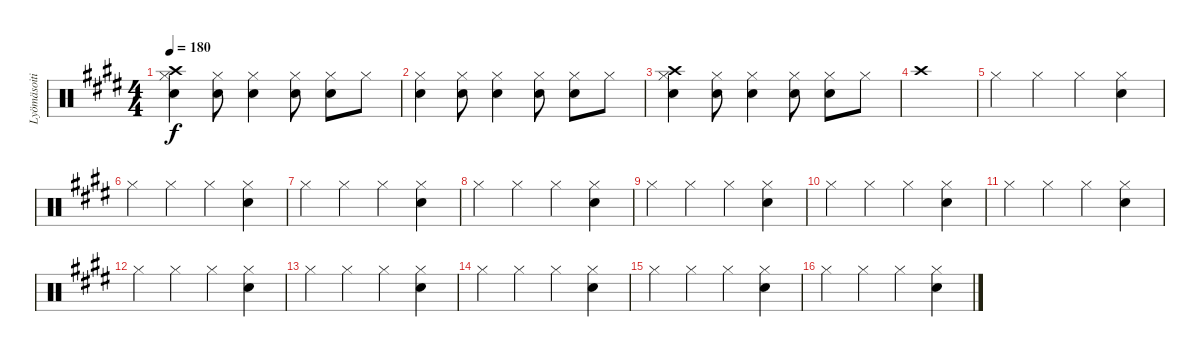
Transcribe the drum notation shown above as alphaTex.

\track ("Lyömäsoitin" "Lyömäsoiti") {instrument percussion}
\staff {score}
\articulation defaults
\ts (4 4)
\tempo 180
\clef neutral
\ks e
("Crash high (hit)" "Hi-Hat (closed)" "Electric Snare (hit)").4{dy f} ("Hi-Hat (closed)" "Electric Snare (hit)").8 ("Hi-Hat (closed)" "Electric Snare (hit)").4 ("Hi-Hat (closed)" "Electric Snare (hit)").8 ("Hi-Hat (closed)" "Electric Snare (hit)").8 "Hi-Hat (closed)".8 |
("Hi-Hat (closed)" "Electric Snare (hit)").4 ("Hi-Hat (closed)" "Electric Snare (hit)").8 ("Hi-Hat (closed)" "Electric Snare (hit)").4 ("Hi-Hat (closed)" "Electric Snare (hit)").8 ("Hi-Hat (closed)" "Electric Snare (hit)").8 "Hi-Hat (closed)".8 |
("Crash high (hit)" "Hi-Hat (closed)" "Electric Snare (hit)").4 ("Hi-Hat (closed)" "Electric Snare (hit)").8 ("Hi-Hat (closed)" "Electric Snare (hit)").4 ("Hi-Hat (closed)" "Electric Snare (hit)").8 ("Hi-Hat (closed)" "Electric Snare (hit)").8 "Hi-Hat (closed)".8 |
"Crash high (hit)".1 |
"Hi-Hat (closed)".4 "Hi-Hat (closed)".4 "Hi-Hat (closed)".4 ("Hi-Hat (closed)" "Electric Snare (hit)").4 |
"Hi-Hat (closed)".4 "Hi-Hat (closed)".4 "Hi-Hat (closed)".4 ("Hi-Hat (closed)" "Electric Snare (hit)").4 |
"Hi-Hat (closed)".4 "Hi-Hat (closed)".4 "Hi-Hat (closed)".4 ("Hi-Hat (closed)" "Electric Snare (hit)").4 |
"Hi-Hat (closed)".4 "Hi-Hat (closed)".4 "Hi-Hat (closed)".4 ("Hi-Hat (closed)" "Electric Snare (hit)").4 |
"Hi-Hat (closed)".4 "Hi-Hat (closed)".4 "Hi-Hat (closed)".4 ("Hi-Hat (closed)" "Electric Snare (hit)").4 |
"Hi-Hat (closed)".4 "Hi-Hat (closed)".4 "Hi-Hat (closed)".4 ("Hi-Hat (closed)" "Electric Snare (hit)").4 |
"Hi-Hat (closed)".4 "Hi-Hat (closed)".4 "Hi-Hat (closed)".4 ("Hi-Hat (closed)" "Electric Snare (hit)").4 |
"Hi-Hat (closed)".4 "Hi-Hat (closed)".4 "Hi-Hat (closed)".4 ("Hi-Hat (closed)" "Electric Snare (hit)").4 |
"Hi-Hat (closed)".4 "Hi-Hat (closed)".4 "Hi-Hat (closed)".4 ("Hi-Hat (closed)" "Electric Snare (hit)").4 |
"Hi-Hat (closed)".4 "Hi-Hat (closed)".4 "Hi-Hat (closed)".4 ("Hi-Hat (closed)" "Electric Snare (hit)").4 |
"Hi-Hat (closed)".4 "Hi-Hat (closed)".4 "Hi-Hat (closed)".4 ("Hi-Hat (closed)" "Electric Snare (hit)").4 |
"Hi-Hat (closed)".4 "Hi-Hat (closed)".4 "Hi-Hat (closed)".4 ("Hi-Hat (closed)" "Electric Snare (hit)").4
